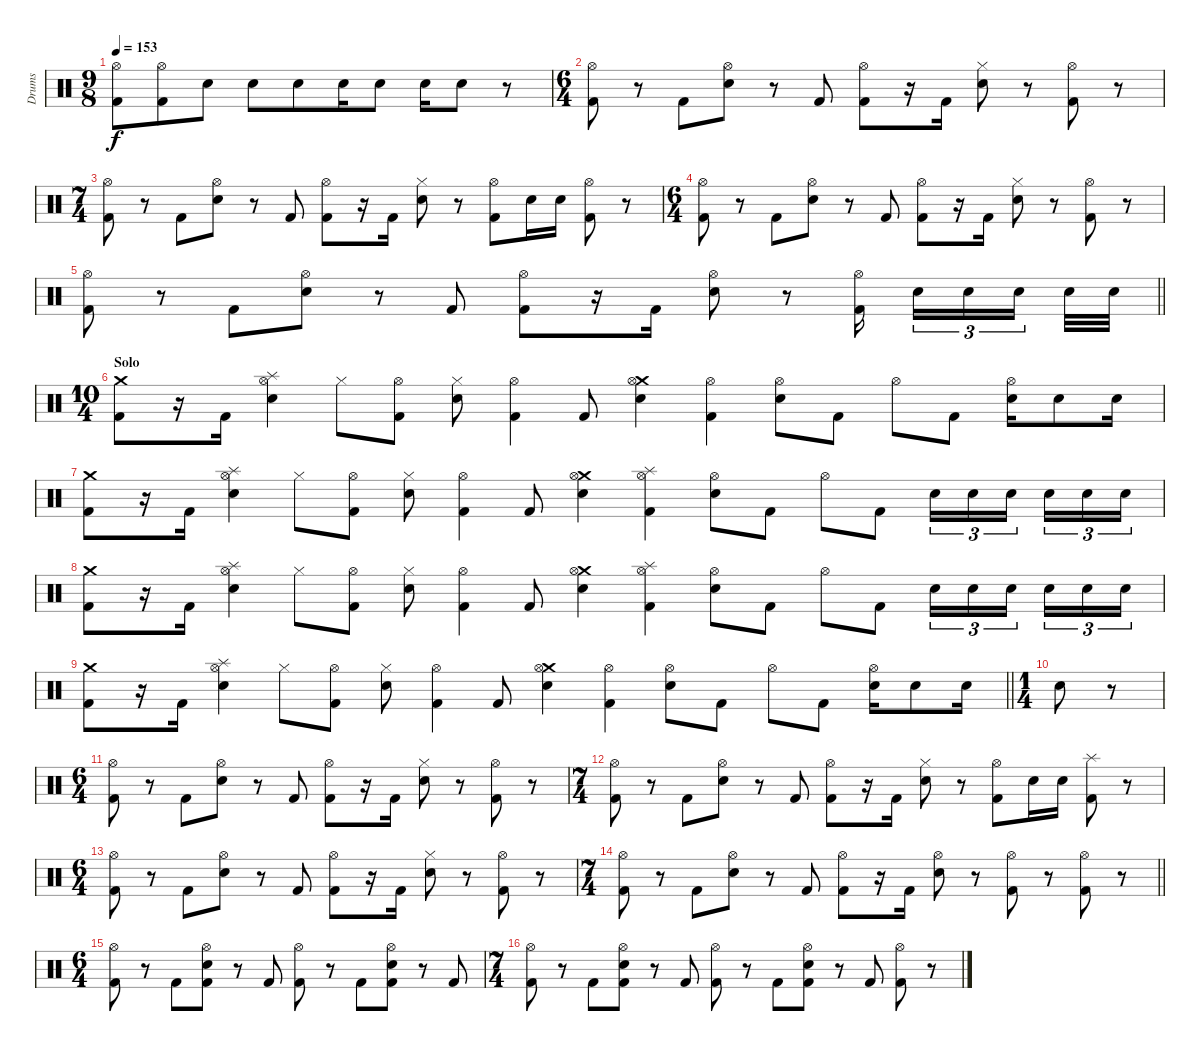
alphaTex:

\track ("Drums" "Drums") {instrument percussion}
\staff {score}
\articulation defaults
\ts (9 8)
\tempo 153
\clef neutral
\ks c
("Hi-Hat (open)" "Kick (hit) 2").8{dy f} ("Hi-Hat (open)" "Kick (hit) 2").8 "Electric Snare (hit)".8 "Electric Snare (hit)".8 "Electric Snare (hit)".8 "Electric Snare (hit)".16 "Electric Snare (hit)".8 "Electric Snare (hit)".16 "Electric Snare (hit)".8 r.8 |
\ts (6 4)
("Hi-Hat (open)" "Kick (hit) 2").8 r.8 "Kick (hit) 2".8 ("Hi-Hat (open)" "Electric Snare (hit)").8 r.8 "Kick (hit) 2".8 ("Hi-Hat (open)" "Kick (hit) 2").8 r.16 "Kick (hit) 2".16 ("Hi-Hat (closed)" "Electric Snare (hit)").8 r.8 ("Hi-Hat (open)" "Kick (hit) 2").8 r.8 |
\ts (7 4)
("Hi-Hat (open)" "Kick (hit) 2").8 r.8 "Kick (hit) 2".8 ("Hi-Hat (open)" "Electric Snare (hit)").8 r.8 "Kick (hit) 2".8 ("Hi-Hat (open)" "Kick (hit) 2").8 r.16 "Kick (hit) 2".16 ("Hi-Hat (closed)" "Electric Snare (hit)").8 r.8 ("Hi-Hat (open)" "Kick (hit) 2").8 "Electric Snare (hit)".16 "Electric Snare (hit)".16 ("Hi-Hat (open)" "Kick (hit) 2").8 r.8 |
\ts (6 4)
("Hi-Hat (open)" "Kick (hit) 2").8 r.8 "Kick (hit) 2".8 ("Hi-Hat (open)" "Electric Snare (hit)").8 r.8 "Kick (hit) 2".8 ("Hi-Hat (open)" "Kick (hit) 2").8 r.16 "Kick (hit) 2".16 ("Hi-Hat (closed)" "Electric Snare (hit)").8 r.8 ("Hi-Hat (open)" "Kick (hit) 2").8 r.8 |
\barLineRight lightlight
("Hi-Hat (open)" "Kick (hit) 2").8 r.8 "Kick (hit) 2".8 ("Hi-Hat (open)" "Electric Snare (hit)").8 r.8 "Kick (hit) 2".8 ("Hi-Hat (open)" "Kick (hit) 2").8 r.16 "Kick (hit) 2".16 ("Hi-Hat (open)" "Electric Snare (hit)").8 r.8 ("Hi-Hat (open)" "Kick (hit) 2").16{beam splitsecondary} "Electric Snare (hit)".16{tu (3 2)} "Electric Snare (hit)".16{tu (3 2)} "Electric Snare (hit)".16{tu (3 2) beam splitsecondary} "Electric Snare (hit)".32 "Electric Snare (hit)".32 |
\ts (10 4)
\section ("" "Solo")
("Crash medium (hit)" "Kick (hit) 2").8 r.16 "Kick (hit) 2".16 ("Splash (hit)" "Hi-Hat (open)" "Electric Snare (hit)").4 "Hi-Hat (closed)".8 ("Hi-Hat (open)" "Kick (hit) 2").8 ("Hi-Hat (closed)" "Electric Snare (hit)").8 ("Hi-Hat (open)" "Kick (hit) 2").4 "Kick (hit) 2".8 ("Crash medium (hit)" "Hi-Hat (open)" "Electric Snare (hit)").4 ("Hi-Hat (open)" "Kick (hit) 2").4 ("Hi-Hat (open)" "Electric Snare (hit)").8 "Kick (hit) 2".8 "Hi-Hat (open)".8 "Kick (hit) 2".8 ("Hi-Hat (open)" "Electric Snare (hit)").16 "Electric Snare (hit)".8 "Electric Snare (hit)".16 |
("Crash medium (hit)" "Kick (hit) 2").8 r.16 "Kick (hit) 2".16 ("Splash (hit)" "Hi-Hat (open)" "Electric Snare (hit)").4 "Hi-Hat (closed)".8 ("Hi-Hat (open)" "Kick (hit) 2").8 ("Hi-Hat (closed)" "Electric Snare (hit)").8 ("Hi-Hat (open)" "Kick (hit) 2").4 "Kick (hit) 2".8 ("Crash medium (hit)" "Hi-Hat (open)" "Electric Snare (hit)").4 ("Splash (hit)" "Hi-Hat (open)" "Kick (hit) 2").4 ("Hi-Hat (open)" "Electric Snare (hit)").8 "Kick (hit) 2".8 "Hi-Hat (open)".8 "Kick (hit) 2".8 "Electric Snare (hit)".16{tu (3 2)} "Electric Snare (hit)".16{tu (3 2)} "Electric Snare (hit)".16{tu (3 2) beam splitsecondary} "Electric Snare (hit)".16{tu (3 2)} "Electric Snare (hit)".16{tu (3 2)} "Electric Snare (hit)".16{tu (3 2)} |
("Crash medium (hit)" "Kick (hit) 2").8 r.16 "Kick (hit) 2".16 ("Splash (hit)" "Hi-Hat (open)" "Electric Snare (hit)").4 "Hi-Hat (closed)".8 ("Hi-Hat (open)" "Kick (hit) 2").8 ("Hi-Hat (closed)" "Electric Snare (hit)").8 ("Hi-Hat (open)" "Kick (hit) 2").4 "Kick (hit) 2".8 ("Crash medium (hit)" "Hi-Hat (open)" "Electric Snare (hit)").4 ("Splash (hit)" "Hi-Hat (open)" "Kick (hit) 2").4 ("Hi-Hat (open)" "Electric Snare (hit)").8 "Kick (hit) 2".8 "Hi-Hat (open)".8 "Kick (hit) 2".8 "Electric Snare (hit)".16{tu (3 2)} "Electric Snare (hit)".16{tu (3 2)} "Electric Snare (hit)".16{tu (3 2) beam splitsecondary} "Electric Snare (hit)".16{tu (3 2)} "Electric Snare (hit)".16{tu (3 2)} "Electric Snare (hit)".16{tu (3 2)} |
\barLineRight lightlight
("Crash medium (hit)" "Kick (hit) 2").8 r.16 "Kick (hit) 2".16 ("Splash (hit)" "Hi-Hat (open)" "Electric Snare (hit)").4 "Hi-Hat (closed)".8 ("Hi-Hat (open)" "Kick (hit) 2").8 ("Hi-Hat (closed)" "Electric Snare (hit)").8 ("Hi-Hat (open)" "Kick (hit) 2").4 "Kick (hit) 2".8 ("Crash medium (hit)" "Hi-Hat (open)" "Electric Snare (hit)").4 ("Hi-Hat (open)" "Kick (hit) 2").4 ("Hi-Hat (open)" "Electric Snare (hit)").8 "Kick (hit) 2".8 "Hi-Hat (open)".8 "Kick (hit) 2".8 ("Hi-Hat (open)" "Electric Snare (hit)").16 "Electric Snare (hit)".8 "Electric Snare (hit)".16 |
\ts (1 4)
\section ("" "")
"Electric Snare (hit)".8 r.8 |
\ts (6 4)
("Hi-Hat (open)" "Kick (hit) 2").8 r.8 "Kick (hit) 2".8 ("Hi-Hat (open)" "Electric Snare (hit)").8 r.8 "Kick (hit) 2".8 ("Hi-Hat (open)" "Kick (hit) 2").8 r.16 "Kick (hit) 2".16 ("Hi-Hat (closed)" "Electric Snare (hit)").8 r.8 ("Hi-Hat (open)" "Kick (hit) 2").8 r.8 |
\ts (7 4)
("Hi-Hat (open)" "Kick (hit) 2").8 r.8 "Kick (hit) 2".8 ("Hi-Hat (open)" "Electric Snare (hit)").8 r.8 "Kick (hit) 2".8 ("Hi-Hat (open)" "Kick (hit) 2").8 r.16 "Kick (hit) 2".16 ("Hi-Hat (closed)" "Electric Snare (hit)").8 r.8 ("Hi-Hat (open)" "Kick (hit) 2").8 "Electric Snare (hit)".16 "Electric Snare (hit)".16 ("Splash (hit)" "Kick (hit) 2").8 r.8 |
\ts (6 4)
("Hi-Hat (open)" "Kick (hit) 2").8 r.8 "Kick (hit) 2".8 ("Hi-Hat (open)" "Electric Snare (hit)").8 r.8 "Kick (hit) 2".8 ("Hi-Hat (open)" "Kick (hit) 2").8 r.16 "Kick (hit) 2".16 ("Hi-Hat (closed)" "Electric Snare (hit)").8 r.8 ("Hi-Hat (open)" "Kick (hit) 2").8 r.8 |
\ts (7 4)
\barLineRight lightlight
("Hi-Hat (open)" "Kick (hit) 2").8 r.8 "Kick (hit) 2".8 ("Hi-Hat (open)" "Electric Snare (hit)").8 r.8 "Kick (hit) 2".8 ("Hi-Hat (open)" "Kick (hit) 2").8 r.16 "Kick (hit) 2".16 ("Hi-Hat (open)" "Electric Snare (hit)").8 r.8 ("Hi-Hat (open)" "Kick (hit) 2").8 r.8 ("Hi-Hat (open)" "Kick (hit) 2").8 r.8 |
\ts (6 4)
("Hi-Hat (open)" "Kick (hit) 2").8 r.8 "Kick (hit) 2".8 ("Hi-Hat (open)" "Electric Snare (hit)" "Kick (hit) 2").8 r.8 "Kick (hit) 2".8 ("Hi-Hat (open)" "Kick (hit) 2").8 r.8 "Kick (hit) 2".8 ("Hi-Hat (open)" "Electric Snare (hit)" "Kick (hit) 2").8 r.8 "Kick (hit) 2".8 |
\ts (7 4)
("Hi-Hat (open)" "Kick (hit) 2").8 r.8 "Kick (hit) 2".8 ("Hi-Hat (open)" "Electric Snare (hit)" "Kick (hit) 2").8 r.8 "Kick (hit) 2".8 ("Hi-Hat (open)" "Kick (hit) 2").8 r.8 "Kick (hit) 2".8 ("Hi-Hat (open)" "Electric Snare (hit)" "Kick (hit) 2").8 r.8 "Kick (hit) 2".8 ("Hi-Hat (open)" "Kick (hit) 2").8 r.8
